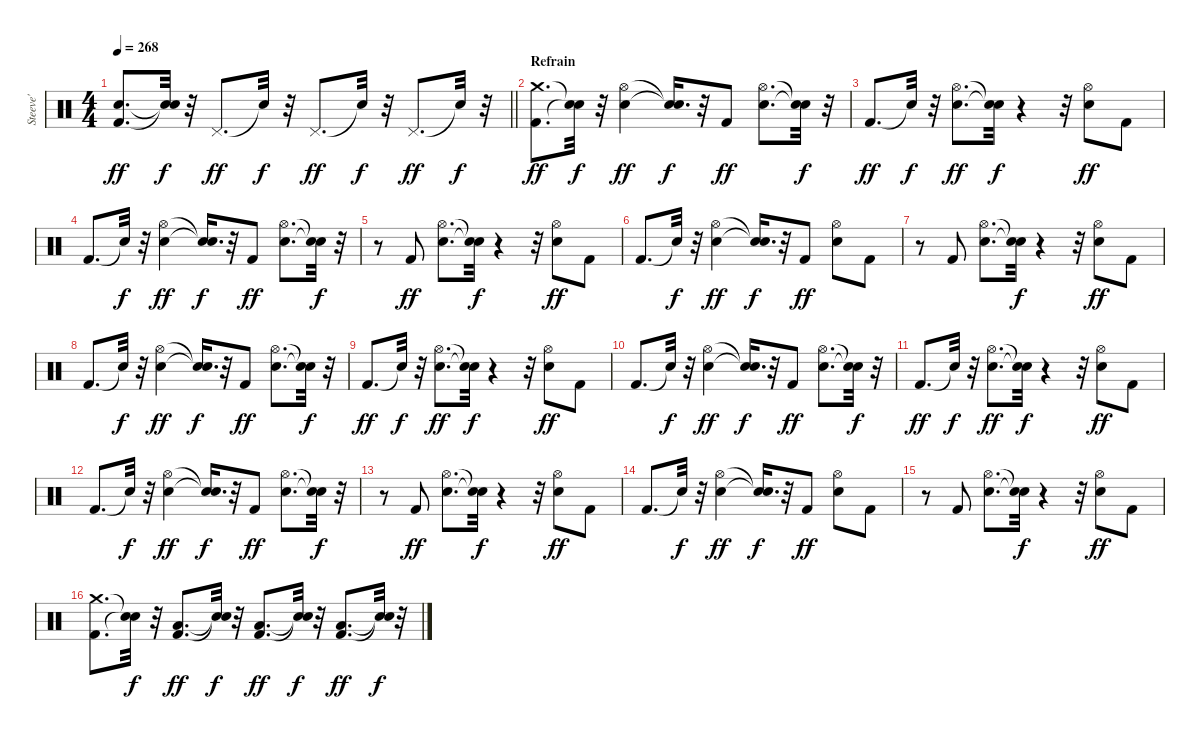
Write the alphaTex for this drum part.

\track ("Steeve'" "Steeve'") {instrument percussion}
\staff {score}
\articulation defaults
\ts (4 4)
\tempo 268
\clef neutral
\barLineRight lightlight
\ks c
("Kick (hit) 2" "Electric Snare (hit)").8{d dy ff} ("Snare (hit)"{t} "Snare (hit)"{t}).32{dy f} r.32 "Pedal Hi-Hat (hit)".8{d dy ff} "Snare (hit)"{t}.32{dy f} r.32 "Pedal Hi-Hat (hit)".8{d dy ff} "Snare (hit)"{t}.32{dy f} r.32 "Pedal Hi-Hat (hit)".8{d dy ff} "Snare (hit)"{t}.32{dy f} r.32 |
\section ("" "Refrain")
("Kick (hit) 2" "Crash medium (hit)").8{d dy ff} ("Snare (hit)"{t} "Snare (hit)"{t}).32{dy f} r.32 ("Electric Snare (hit)" "Hi-Hat (open)").4{dy ff} ("Snare (hit)"{t} "Snare (hit)"{t}).16{d dy f} r.32 "Kick (hit) 2".8{dy ff} ("Electric Snare (hit)" "Hi-Hat (open)").8{d} ("Snare (hit)"{t} "Snare (hit)"{t}).32{dy f} r.32 |
"Kick (hit) 2".8{d dy ff} "Snare (hit)"{t}.32{dy f} r.32 ("Electric Snare (hit)" "Hi-Hat (open)").8{d dy ff} ("Snare (hit)"{t} "Snare (hit)"{t}).32{dy f} r.4 r.32 ("Electric Snare (hit)" "Hi-Hat (open)").8{dy ff} "Kick (hit) 2".8 |
"Kick (hit) 2".8{d} "Snare (hit)"{t}.32{dy f} r.32 ("Electric Snare (hit)" "Hi-Hat (open)").4{dy ff} ("Snare (hit)"{t} "Snare (hit)"{t}).16{d dy f} r.32 "Kick (hit) 2".8{dy ff} ("Electric Snare (hit)" "Hi-Hat (open)").8{d} ("Snare (hit)"{t} "Snare (hit)"{t}).32{dy f} r.32 |
r.8 "Kick (hit) 2".8{dy ff} ("Electric Snare (hit)" "Hi-Hat (open)").8{d} ("Snare (hit)"{t} "Snare (hit)"{t}).32{dy f} r.4 r.32 ("Electric Snare (hit)" "Hi-Hat (open)").8{dy ff} "Kick (hit) 2".8 |
"Kick (hit) 2".8{d} "Snare (hit)"{t}.32{dy f} r.32 ("Electric Snare (hit)" "Hi-Hat (open)").4{dy ff} ("Snare (hit)"{t} "Snare (hit)"{t}).16{d dy f} r.32 "Kick (hit) 2".8{dy ff} ("Electric Snare (hit)" "Hi-Hat (open)").8 "Kick (hit) 2".8 |
r.8 "Kick (hit) 2".8 ("Electric Snare (hit)" "Hi-Hat (open)").8{d} ("Snare (hit)"{t} "Snare (hit)"{t}).32{dy f} r.4 r.32 ("Electric Snare (hit)" "Hi-Hat (open)").8{dy ff} "Kick (hit) 2".8 |
"Kick (hit) 2".8{d} "Snare (hit)"{t}.32{dy f} r.32 ("Electric Snare (hit)" "Hi-Hat (open)").4{dy ff} ("Snare (hit)"{t} "Snare (hit)"{t}).16{d dy f} r.32 "Kick (hit) 2".8{dy ff} ("Electric Snare (hit)" "Hi-Hat (open)").8{d} ("Snare (hit)"{t} "Snare (hit)"{t}).32{dy f} r.32 |
"Kick (hit) 2".8{d dy ff} "Snare (hit)"{t}.32{dy f} r.32 ("Electric Snare (hit)" "Hi-Hat (open)").8{d dy ff} ("Snare (hit)"{t} "Snare (hit)"{t}).32{dy f} r.4 r.32 ("Electric Snare (hit)" "Hi-Hat (open)").8{dy ff} "Kick (hit) 2".8 |
"Kick (hit) 2".8{d} "Snare (hit)"{t}.32{dy f} r.32 ("Electric Snare (hit)" "Hi-Hat (open)").4{dy ff} ("Snare (hit)"{t} "Snare (hit)"{t}).16{d dy f} r.32 "Kick (hit) 2".8{dy ff} ("Electric Snare (hit)" "Hi-Hat (open)").8{d} ("Snare (hit)"{t} "Snare (hit)"{t}).32{dy f} r.32 |
"Kick (hit) 2".8{d dy ff} "Snare (hit)"{t}.32{dy f} r.32 ("Electric Snare (hit)" "Hi-Hat (open)").8{d dy ff} ("Snare (hit)"{t} "Snare (hit)"{t}).32{dy f} r.4 r.32 ("Electric Snare (hit)" "Hi-Hat (open)").8{dy ff} "Kick (hit) 2".8 |
"Kick (hit) 2".8{d} "Snare (hit)"{t}.32{dy f} r.32 ("Electric Snare (hit)" "Hi-Hat (open)").4{dy ff} ("Snare (hit)"{t} "Snare (hit)"{t}).16{d dy f} r.32 "Kick (hit) 2".8{dy ff} ("Electric Snare (hit)" "Hi-Hat (open)").8{d} ("Snare (hit)"{t} "Snare (hit)"{t}).32{dy f} r.32 |
r.8 "Kick (hit) 2".8{dy ff} ("Electric Snare (hit)" "Hi-Hat (open)").8{d} ("Snare (hit)"{t} "Snare (hit)"{t}).32{dy f} r.4 r.32 ("Electric Snare (hit)" "Hi-Hat (open)").8{dy ff} "Kick (hit) 2".8 |
"Kick (hit) 2".8{d} "Snare (hit)"{t}.32{dy f} r.32 ("Electric Snare (hit)" "Hi-Hat (open)").4{dy ff} ("Snare (hit)"{t} "Snare (hit)"{t}).16{d dy f} r.32 "Kick (hit) 2".8{dy ff} ("Electric Snare (hit)" "Hi-Hat (open)").8 "Kick (hit) 2".8 |
r.8 "Kick (hit) 2".8 ("Electric Snare (hit)" "Hi-Hat (open)").8{d} ("Snare (hit)"{t} "Snare (hit)"{t}).32{dy f} r.4 r.32 ("Electric Snare (hit)" "Hi-Hat (open)").8{dy ff} "Kick (hit) 2".8 |
("Kick (hit) 2" "Crash medium (hit)").8{d} ("Snare (hit)"{t} "Snare (hit)"{t}).32{dy f} r.32 ("Kick (hit) 2" "Low Floor Tom (hit)").8{d dy ff} ("Snare (hit)"{t} "Snare (hit)"{t}).32{dy f} r.32 ("Kick (hit) 2" "Low Floor Tom (hit)").8{d dy ff} ("Snare (hit)"{t} "Snare (hit)"{t}).32{dy f} r.32 ("Kick (hit) 2" "Low Floor Tom (hit)").8{d dy ff} ("Snare (hit)"{t} "Snare (hit)"{t}).32{dy f} r.32
